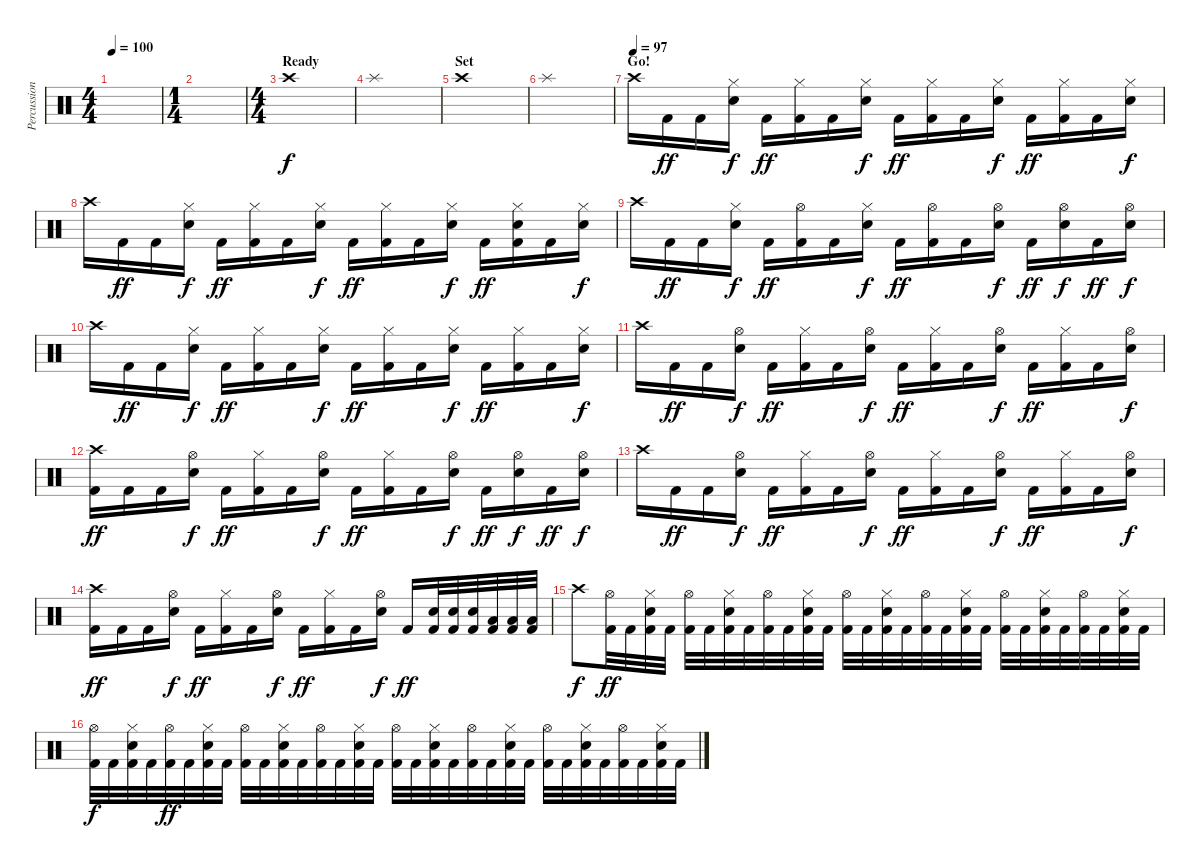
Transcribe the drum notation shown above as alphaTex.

\track ("Percussion" "Percussion") {instrument percussion}
\staff {score}
\articulation defaults
\ts (4 4)
\tempo 100
\clef neutral
\ks c
|
\ts (1 4)
|
\ts (4 4)
\section ("" "Ready")
"Crash high (hit)".1 |
"Splash (hit)".1 |
\section ("" "Set")
"Crash high (hit)".1 |
"Splash (hit)".1 |
\section ("" "Go!")
\tempo (97)
"Crash high (hit)".16 "Kick (hit) 2".16{dy ff} "Kick (hit) 2".16 ("Hi-Hat (closed)" "Electric Snare (hit)").16{dy f} "Kick (hit) 2".16{dy ff} ("Hi-Hat (closed)" "Kick (hit) 2").16 "Kick (hit) 2".16 ("Hi-Hat (closed)" "Electric Snare (hit)").16{dy f} "Kick (hit) 2".16{dy ff} ("Hi-Hat (closed)" "Kick (hit) 2").16 "Kick (hit) 2".16 ("Hi-Hat (closed)" "Electric Snare (hit)").16{dy f} "Kick (hit) 2".16{dy ff} ("Hi-Hat (closed)" "Kick (hit) 2").16 "Kick (hit) 2".16 ("Hi-Hat (closed)" "Electric Snare (hit)").16{dy f} |
"Crash high (hit)".16 "Kick (hit) 2".16{dy ff} "Kick (hit) 2".16 ("Hi-Hat (closed)" "Electric Snare (hit)").16{dy f} "Kick (hit) 2".16{dy ff} ("Hi-Hat (closed)" "Kick (hit) 2").16 "Kick (hit) 2".16 ("Hi-Hat (closed)" "Electric Snare (hit)").16{dy f} "Kick (hit) 2".16{dy ff} ("Hi-Hat (closed)" "Kick (hit) 2").16 "Kick (hit) 2".16 ("Hi-Hat (closed)" "Electric Snare (hit)").16{dy f} "Kick (hit) 2".16{dy ff} ("Hi-Hat (closed)" "Electric Snare (hit)" "Kick (hit) 2").16 "Kick (hit) 2".16 ("Hi-Hat (closed)" "Electric Snare (hit)").16{dy f} |
"Crash high (hit)".16 "Kick (hit) 2".16{dy ff} "Kick (hit) 2".16 ("Hi-Hat (closed)" "Electric Snare (hit)").16{dy f} "Kick (hit) 2".16{dy ff} ("Hi-Hat (open)" "Kick (hit) 2").16 "Kick (hit) 2".16 ("Hi-Hat (closed)" "Electric Snare (hit)").16{dy f} "Kick (hit) 2".16{dy ff} ("Hi-Hat (open)" "Kick (hit) 2").16 "Kick (hit) 2".16 ("Hi-Hat (open)" "Electric Snare (hit)").16{dy f} "Kick (hit) 2".16{dy ff} ("Hi-Hat (open)" "Electric Snare (hit)").16{dy f} "Kick (hit) 2".16{dy ff} ("Hi-Hat (open)" "Electric Snare (hit)").16{dy f} |
"Crash high (hit)".16 "Kick (hit) 2".16{dy ff} "Kick (hit) 2".16 ("Hi-Hat (closed)" "Electric Snare (hit)").16{dy f} "Kick (hit) 2".16{dy ff} ("Hi-Hat (closed)" "Kick (hit) 2").16 "Kick (hit) 2".16 ("Hi-Hat (closed)" "Electric Snare (hit)").16{dy f} "Kick (hit) 2".16{dy ff} ("Hi-Hat (closed)" "Kick (hit) 2").16 "Kick (hit) 2".16 ("Hi-Hat (closed)" "Electric Snare (hit)").16{dy f} "Kick (hit) 2".16{dy ff} ("Hi-Hat (closed)" "Kick (hit) 2").16 "Kick (hit) 2".16 ("Hi-Hat (closed)" "Electric Snare (hit)").16{dy f} |
"Crash high (hit)".16 "Kick (hit) 2".16{dy ff} "Kick (hit) 2".16 ("Hi-Hat (open)" "Electric Snare (hit)").16{dy f} "Kick (hit) 2".16{dy ff} ("Hi-Hat (closed)" "Kick (hit) 2").16 "Kick (hit) 2".16 ("Hi-Hat (open)" "Electric Snare (hit)").16{dy f} "Kick (hit) 2".16{dy ff} ("Hi-Hat (closed)" "Kick (hit) 2").16 "Kick (hit) 2".16 ("Hi-Hat (open)" "Electric Snare (hit)").16{dy f} "Kick (hit) 2".16{dy ff} ("Hi-Hat (closed)" "Kick (hit) 2").16 "Kick (hit) 2".16 ("Hi-Hat (open)" "Electric Snare (hit)").16{dy f} |
("Crash high (hit)" "Kick (hit) 2").16{dy ff} "Kick (hit) 2".16 "Kick (hit) 2".16 ("Hi-Hat (open)" "Electric Snare (hit)").16{dy f} "Kick (hit) 2".16{dy ff} ("Hi-Hat (closed)" "Kick (hit) 2").16 "Kick (hit) 2".16 ("Hi-Hat (open)" "Electric Snare (hit)").16{dy f} "Kick (hit) 2".16{dy ff} ("Hi-Hat (closed)" "Kick (hit) 2").16 "Kick (hit) 2".16 ("Hi-Hat (open)" "Electric Snare (hit)").16{dy f} "Kick (hit) 2".16{dy ff} ("Hi-Hat (open)" "Electric Snare (hit)").16{dy f} "Kick (hit) 2".16{dy ff} ("Hi-Hat (open)" "Electric Snare (hit)").16{dy f} |
"Crash high (hit)".16 "Kick (hit) 2".16{dy ff} "Kick (hit) 2".16 ("Hi-Hat (open)" "Electric Snare (hit)").16{dy f} "Kick (hit) 2".16{dy ff} ("Hi-Hat (closed)" "Kick (hit) 2").16 "Kick (hit) 2".16 ("Hi-Hat (open)" "Electric Snare (hit)").16{dy f} "Kick (hit) 2".16{dy ff} ("Hi-Hat (closed)" "Kick (hit) 2").16 "Kick (hit) 2".16 ("Hi-Hat (open)" "Electric Snare (hit)").16{dy f} "Kick (hit) 2".16{dy ff} ("Hi-Hat (closed)" "Kick (hit) 2").16 "Kick (hit) 2".16 ("Hi-Hat (open)" "Electric Snare (hit)").16{dy f} |
("Crash high (hit)" "Kick (hit) 2").16{dy ff} "Kick (hit) 2".16 "Kick (hit) 2".16 ("Hi-Hat (open)" "Electric Snare (hit)").16{dy f} "Kick (hit) 2".16{dy ff} ("Hi-Hat (closed)" "Kick (hit) 2").16 "Kick (hit) 2".16 ("Hi-Hat (open)" "Electric Snare (hit)").16{dy f} "Kick (hit) 2".16{dy ff} ("Hi-Hat (closed)" "Kick (hit) 2").16 "Kick (hit) 2".16 ("Hi-Hat (open)" "Electric Snare (hit)").16{dy f} "Kick (hit) 2".16{dy ff} ("Electric Snare (hit)" "Kick (hit) 2").32 ("Electric Snare (hit)" "Kick (hit) 2").32 ("Electric Snare (hit)" "Kick (hit) 2").32 ("Low Tom (hit)" "Kick (hit) 2").32 ("Low Tom (hit)" "Kick (hit) 2").32 ("Low Tom (hit)" "Kick (hit) 2").32 |
"Crash high (hit)".8{dy f} ("Hi-Hat (open)" "Kick (hit) 2").32{dy ff} "Kick (hit) 2".32 ("Hi-Hat (closed)" "Electric Snare (hit)" "Kick (hit) 2").32 "Kick (hit) 2".32 ("Hi-Hat (open)" "Kick (hit) 2").32 "Kick (hit) 2".32 ("Hi-Hat (closed)" "Electric Snare (hit)" "Kick (hit) 2").32 "Kick (hit) 2".32 ("Hi-Hat (open)" "Kick (hit) 2").32 "Kick (hit) 2".32 ("Hi-Hat (closed)" "Electric Snare (hit)" "Kick (hit) 2").32 "Kick (hit) 2".32 ("Hi-Hat (open)" "Kick (hit) 2").32 "Kick (hit) 2".32 ("Hi-Hat (closed)" "Electric Snare (hit)" "Kick (hit) 2").32 "Kick (hit) 2".32 ("Hi-Hat (open)" "Kick (hit) 2").32 "Kick (hit) 2".32 ("Hi-Hat (closed)" "Electric Snare (hit)" "Kick (hit) 2").32 "Kick (hit) 2".32 ("Hi-Hat (open)" "Kick (hit) 2").32 "Kick (hit) 2".32 ("Hi-Hat (closed)" "Electric Snare (hit)" "Kick (hit) 2").32 "Kick (hit) 2".32 ("Hi-Hat (open)" "Kick (hit) 2").32 "Kick (hit) 2".32 ("Hi-Hat (closed)" "Electric Snare (hit)" "Kick (hit) 2").32 "Kick (hit) 2".32 |
("Hi-Hat (open)" "Kick (hit) 2").32{dy f} "Kick (hit) 2".32 ("Hi-Hat (closed)" "Electric Snare (hit)" "Kick (hit) 2").32 "Kick (hit) 2".32 ("Hi-Hat (open)" "Kick (hit) 2").32{dy ff} "Kick (hit) 2".32 ("Hi-Hat (closed)" "Electric Snare (hit)" "Kick (hit) 2").32 "Kick (hit) 2".32 ("Hi-Hat (open)" "Kick (hit) 2").32 "Kick (hit) 2".32 ("Hi-Hat (closed)" "Electric Snare (hit)" "Kick (hit) 2").32 "Kick (hit) 2".32 ("Hi-Hat (open)" "Kick (hit) 2").32 "Kick (hit) 2".32 ("Hi-Hat (closed)" "Electric Snare (hit)" "Kick (hit) 2").32 "Kick (hit) 2".32 ("Hi-Hat (open)" "Kick (hit) 2").32 "Kick (hit) 2".32 ("Hi-Hat (closed)" "Electric Snare (hit)" "Kick (hit) 2").32 "Kick (hit) 2".32 ("Hi-Hat (open)" "Kick (hit) 2").32 "Kick (hit) 2".32 ("Hi-Hat (closed)" "Electric Snare (hit)" "Kick (hit) 2").32 "Kick (hit) 2".32 ("Hi-Hat (open)" "Kick (hit) 2").32 "Kick (hit) 2".32 ("Hi-Hat (closed)" "Electric Snare (hit)" "Kick (hit) 2").32 "Kick (hit) 2".32 ("Hi-Hat (open)" "Kick (hit) 2").32 "Kick (hit) 2".32 ("Hi-Hat (closed)" "Electric Snare (hit)" "Kick (hit) 2").32 "Kick (hit) 2".32
